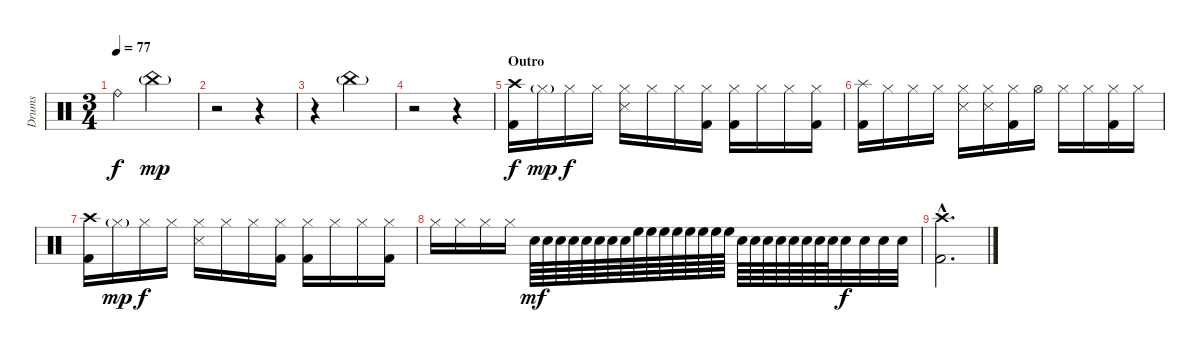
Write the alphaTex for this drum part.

\track ("Drums" "Drums") {instrument percussion}
\staff {score}
\articulation defaults
\ts (3 4)
\tempo 77
\clef neutral
\ks c "Ride (bell)".4{dy f} "China (hit)"{g}.2{dy mp}
|
r.2 r.4 |
r.4 "China (hit)"{g}.2 |
r.2 r.4 |
\section ("" "Outro")
("Crash high (hit)" "Kick (hit) 2").16{dy f} "Hi-Hat (closed)"{g}.16{dy mp} "Hi-Hat (closed)".16{dy f} "Hi-Hat (closed)".16 ("Hi-Hat (closed)" "Snare (side stick) 3").16 "Hi-Hat (closed)".16 "Hi-Hat (closed)".16 ("Hi-Hat (closed)" "Kick (hit) 2").16 ("Hi-Hat (closed)" "Kick (hit) 2").16 "Hi-Hat (closed)".16 "Hi-Hat (closed)".16 ("Hi-Hat (closed)" "Kick (hit) 2").16 |
("Splash (hit)" "Kick (hit) 2").16 "Hi-Hat (closed)".16 "Hi-Hat (closed)".16 "Hi-Hat (closed)".16 ("Hi-Hat (closed)" "Snare (side stick) 3").16 ("Hi-Hat (closed)" "Snare (side stick) 3").16 ("Hi-Hat (closed)" "Kick (hit) 2").16 "Hi-Hat (open)".16 "Hi-Hat (closed)".16 "Hi-Hat (closed)".16 ("Hi-Hat (closed)" "Kick (hit) 2").16 "Hi-Hat (closed)".16 |
("Crash high (hit)" "Kick (hit) 2").16 "Hi-Hat (closed)"{g}.16{dy mp} "Hi-Hat (closed)".16{dy f} "Hi-Hat (closed)".16 ("Hi-Hat (closed)" "Snare (side stick) 3").16 "Hi-Hat (closed)".16 "Hi-Hat (closed)".16 ("Hi-Hat (closed)" "Kick (hit) 2").16 ("Hi-Hat (closed)" "Kick (hit) 2").16 "Hi-Hat (closed)".16 "Hi-Hat (closed)".16 ("Hi-Hat (closed)" "Kick (hit) 2").16 |
"Hi-Hat (closed)".16 "Hi-Hat (closed)".16 "Hi-Hat (closed)".16 "Hi-Hat (closed)".16 "Electric Snare (hit)".64{dy mf} "Electric Snare (hit)".64 "Electric Snare (hit)".64 "Electric Snare (hit)".64 "Electric Snare (hit)".64 "Electric Snare (hit)".64 "Electric Snare (hit)".64 "Electric Snare (hit)".64 "High Floor Tom (hit)".64 "High Floor Tom (hit)".64 "High Floor Tom (hit)".64 "High Floor Tom (hit)".64 "High Floor Tom (hit)".64 "High Floor Tom (hit)".64 "High Floor Tom (hit)".64 "High Floor Tom (hit)".64 "Electric Snare (hit)".64 "Electric Snare (hit)".64 "Electric Snare (hit)".64 "Electric Snare (hit)".64 "Electric Snare (hit)".64 "Electric Snare (hit)".64 "Electric Snare (hit)".64 "Electric Snare (hit)".64 "Electric Snare (hit)".32{dy f} "Electric Snare (hit)".32 "Electric Snare (hit)".32 "Electric Snare (hit)".32 |
("Crash high (hit)"{hac} "Kick (hit) 2"{hac}).2{d}
